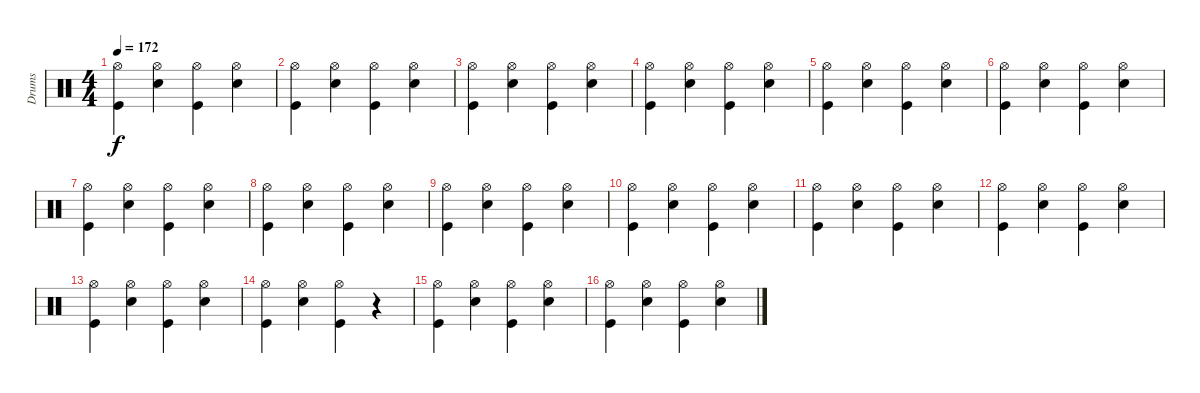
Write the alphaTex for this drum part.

\track ("Drums" "Drums") {instrument percussion}
\staff {score}
\articulation defaults
\ts (4 4)
\tempo 172
\clef neutral
\ks c
("Kick (hit)" "Hi-Hat (open)").4{dy f} ("Snare (hit) 2" "Hi-Hat (open)").4 ("Kick (hit)" "Hi-Hat (open)").4 ("Snare (hit) 2" "Hi-Hat (open)").4 |
("Kick (hit)" "Hi-Hat (open)").4 ("Snare (hit) 2" "Hi-Hat (open)").4 ("Kick (hit)" "Hi-Hat (open)").4 ("Snare (hit) 2" "Hi-Hat (open)").4 |
("Kick (hit)" "Hi-Hat (open)").4 ("Snare (hit) 2" "Hi-Hat (open)").4 ("Kick (hit)" "Hi-Hat (open)").4 ("Snare (hit) 2" "Hi-Hat (open)").4 |
("Kick (hit)" "Hi-Hat (open)").4 ("Snare (hit) 2" "Hi-Hat (open)").4 ("Kick (hit)" "Hi-Hat (open)").4 ("Snare (hit) 2" "Hi-Hat (open)").4 |
("Kick (hit)" "Hi-Hat (open)").4 ("Snare (hit) 2" "Hi-Hat (open)").4 ("Kick (hit)" "Hi-Hat (open)").4 ("Snare (hit) 2" "Hi-Hat (open)").4 |
("Kick (hit)" "Hi-Hat (open)").4 ("Snare (hit) 2" "Hi-Hat (open)").4 ("Kick (hit)" "Hi-Hat (open)").4 ("Snare (hit) 2" "Hi-Hat (open)").4 |
("Kick (hit)" "Hi-Hat (open)").4 ("Snare (hit) 2" "Hi-Hat (open)").4 ("Kick (hit)" "Hi-Hat (open)").4 ("Snare (hit) 2" "Hi-Hat (open)").4 |
("Kick (hit)" "Hi-Hat (open)").4 ("Snare (hit) 2" "Hi-Hat (open)").4 ("Kick (hit)" "Hi-Hat (open)").4 ("Snare (hit) 2" "Hi-Hat (open)").4 |
("Kick (hit)" "Hi-Hat (open)").4 ("Snare (hit) 2" "Hi-Hat (open)").4 ("Kick (hit)" "Hi-Hat (open)").4 ("Snare (hit) 2" "Hi-Hat (open)").4 |
("Kick (hit)" "Hi-Hat (open)").4 ("Snare (hit) 2" "Hi-Hat (open)").4 ("Kick (hit)" "Hi-Hat (open)").4 ("Snare (hit) 2" "Hi-Hat (open)").4 |
("Kick (hit)" "Hi-Hat (open)").4 ("Snare (hit) 2" "Hi-Hat (open)").4 ("Kick (hit)" "Hi-Hat (open)").4 ("Snare (hit) 2" "Hi-Hat (open)").4 |
("Kick (hit)" "Hi-Hat (open)").4 ("Snare (hit) 2" "Hi-Hat (open)").4 ("Kick (hit)" "Hi-Hat (open)").4 ("Snare (hit) 2" "Hi-Hat (open)").4 |
("Kick (hit)" "Hi-Hat (open)").4 ("Snare (hit) 2" "Hi-Hat (open)").4 ("Kick (hit)" "Hi-Hat (open)").4 ("Snare (hit) 2" "Hi-Hat (open)").4 |
("Kick (hit)" "Hi-Hat (open)").4 ("Snare (hit) 2" "Hi-Hat (open)").4 ("Kick (hit)" "Hi-Hat (open)").4 r.4 |
("Kick (hit)" "Hi-Hat (open)").4 ("Snare (hit) 2" "Hi-Hat (open)").4 ("Kick (hit)" "Hi-Hat (open)").4 ("Snare (hit) 2" "Hi-Hat (open)").4 |
("Kick (hit)" "Hi-Hat (open)").4 ("Snare (hit) 2" "Hi-Hat (open)").4 ("Kick (hit)" "Hi-Hat (open)").4 ("Snare (hit) 2" "Hi-Hat (open)").4
